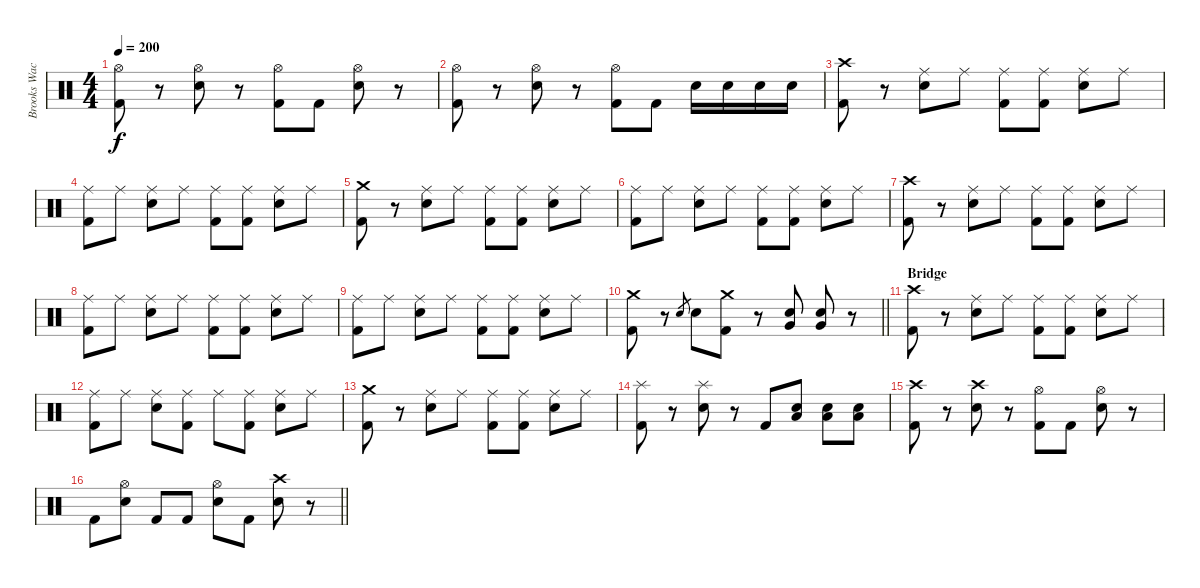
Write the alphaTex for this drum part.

\track ("Brooks Wackerman" "Brooks Wac") {instrument percussion}
\staff {score}
\articulation defaults
\ts (4 4)
\tempo 200
\clef neutral
\ks c
("Hi-Hat (open)" "Kick (hit) 2").8{dy f} r.8 ("Hi-Hat (open)" "Electric Snare (hit)").8 r.8 ("Hi-Hat (open)" "Kick (hit) 2").8 "Kick (hit) 2".8 ("Hi-Hat (open)" "Electric Snare (hit)").8 r.8 |
("Hi-Hat (open)" "Kick (hit) 2").8 r.8 ("Hi-Hat (open)" "Electric Snare (hit)").8 r.8 ("Hi-Hat (open)" "Kick (hit) 2").8 "Kick (hit) 2".8 "Electric Snare (hit)".16 "Electric Snare (hit)".16 "Electric Snare (hit)".16 "Electric Snare (hit)".16 |
("Crash high (hit)" "Kick (hit) 2").8 r.8 ("Ride (middle)" "Electric Snare (hit)").8 "Ride (middle)".8 ("Ride (middle)" "Kick (hit) 2").8 ("Ride (middle)" "Kick (hit) 2").8 ("Ride (middle)" "Electric Snare (hit)").8 "Ride (middle)".8 |
("Ride (middle)" "Kick (hit) 2").8 "Ride (middle)".8 ("Ride (middle)" "Electric Snare (hit)").8 "Ride (middle)".8 ("Ride (middle)" "Kick (hit) 2").8 ("Ride (middle)" "Kick (hit) 2").8 ("Ride (middle)" "Electric Snare (hit)").8 "Ride (middle)".8 |
("Crash medium (hit)" "Kick (hit) 2").8 r.8 ("Ride (middle)" "Electric Snare (hit)").8 "Ride (middle)".8 ("Ride (middle)" "Kick (hit) 2").8 ("Ride (middle)" "Kick (hit) 2").8 ("Ride (middle)" "Electric Snare (hit)").8 "Ride (middle)".8 |
("Ride (middle)" "Kick (hit) 2").8 "Ride (middle)".8 ("Ride (middle)" "Electric Snare (hit)").8 "Ride (middle)".8 ("Ride (middle)" "Kick (hit) 2").8 ("Ride (middle)" "Kick (hit) 2").8 ("Ride (middle)" "Electric Snare (hit)").8 "Ride (middle)".8 |
("Crash high (hit)" "Kick (hit) 2").8 r.8 ("Ride (middle)" "Electric Snare (hit)").8 "Ride (middle)".8 ("Ride (middle)" "Kick (hit) 2").8 ("Ride (middle)" "Kick (hit) 2").8 ("Ride (middle)" "Electric Snare (hit)").8 "Ride (middle)".8 |
("Ride (middle)" "Kick (hit) 2").8 "Ride (middle)".8 ("Ride (middle)" "Electric Snare (hit)").8 "Ride (middle)".8 ("Ride (middle)" "Kick (hit) 2").8 ("Ride (middle)" "Kick (hit) 2").8 ("Ride (middle)" "Electric Snare (hit)").8 "Ride (middle)".8 |
("Ride (middle)" "Kick (hit) 2").8 "Ride (middle)".8 ("Ride (middle)" "Electric Snare (hit)").8 "Ride (middle)".8 ("Ride (middle)" "Kick (hit) 2").8 ("Ride (middle)" "Kick (hit) 2").8 ("Ride (middle)" "Electric Snare (hit)").8 "Ride (middle)".8 |
\barLineRight lightlight
("Crash medium (hit)" "Kick (hit) 2").8 r.8 "Electric Snare (hit)".8{gr} "Electric Snare (hit)".8 ("Crash medium (hit)" "Kick (hit) 2").8 r.8 ("Very Low Tom (hit)" "Electric Snare (hit)").8 ("Very Low Tom (hit)" "Electric Snare (hit)").8 r.8 |
\section ("" "Bridge")
("Crash high (hit)" "Kick (hit) 2").8 r.8 ("Ride (middle)" "Electric Snare (hit)").8 "Ride (middle)".8 ("Ride (middle)" "Kick (hit) 2").8 ("Ride (middle)" "Kick (hit) 2").8 ("Ride (middle)" "Electric Snare (hit)").8 "Ride (middle)".8 |
("Ride (middle)" "Kick (hit) 2").8 "Ride (middle)".8 ("Ride (middle)" "Electric Snare (hit)").8 ("Ride (middle)" "Kick (hit) 2").8 "Ride (middle)".8 ("Ride (middle)" "Kick (hit) 2").8 ("Ride (middle)" "Electric Snare (hit)").8 "Ride (middle)".8 |
("Crash medium (hit)" "Kick (hit) 2").8 r.8 ("Ride (middle)" "Electric Snare (hit)").8 "Ride (middle)".8 ("Ride (middle)" "Kick (hit) 2").8 ("Ride (middle)" "Kick (hit) 2").8 ("Ride (middle)" "Electric Snare (hit)").8 "Ride (middle)".8 |
("Splash (hit)" "Kick (hit) 2").8 r.8 ("Splash (hit)" "Electric Snare (hit)").8 r.8 "Kick (hit) 2".8 ("Low Tom (hit)" "Electric Snare (hit)").8 ("Low Tom (hit)" "Electric Snare (hit)").8 ("Low Tom (hit)" "Electric Snare (hit)").8 |
("Crash high (hit)" "Kick (hit) 2").8 r.8 ("Crash high (hit)" "Electric Snare (hit)").8 r.8 ("Hi-Hat (open)" "Kick (hit) 2").8 "Kick (hit) 2".8 ("Hi-Hat (open)" "Electric Snare (hit)").8 r.8 |
\barLineRight lightlight "Kick (hit) 2".8
("Hi-Hat (open)" "Electric Snare (hit)").8 "Kick (hit) 2".8 "Kick (hit) 2".8 ("Hi-Hat (open)" "Electric Snare (hit)").8 "Kick (hit) 2".8 ("Crash high (hit)" "Electric Snare (hit)").8 r.8
